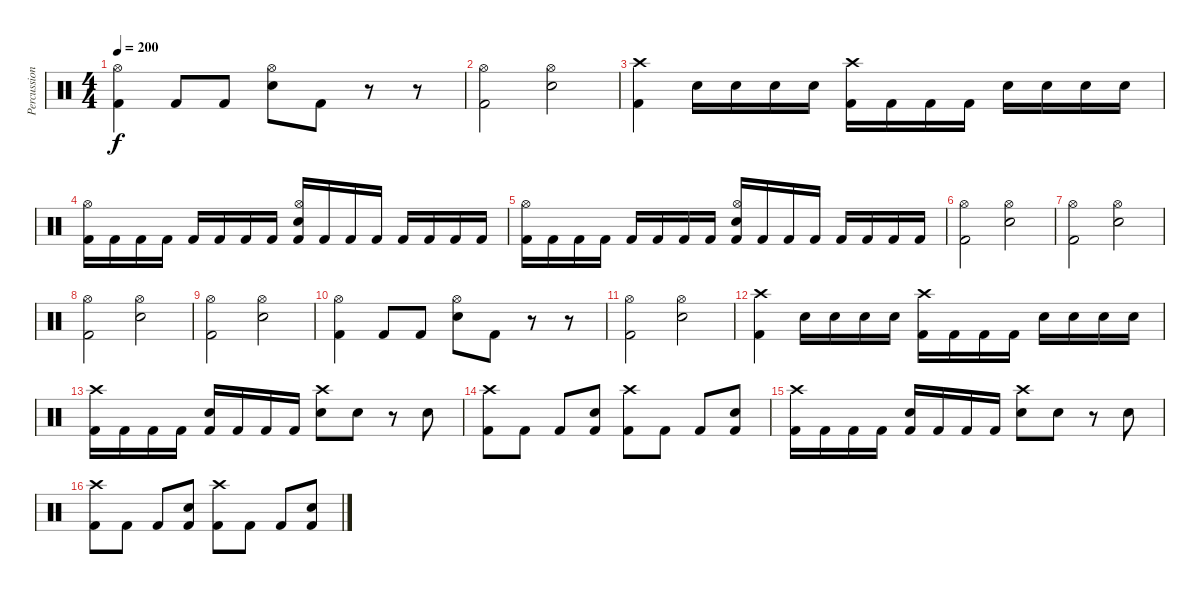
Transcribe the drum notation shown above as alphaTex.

\track ("Percussion" "Percussion") {instrument percussion}
\staff {score}
\articulation defaults
\ts (4 4)
\tempo 200
\clef neutral
\ks c
("Kick (hit) 2" "Hi-Hat (open)").4{dy f} "Kick (hit) 2".8 "Kick (hit) 2".8 ("Snare (hit) 2" "Hi-Hat (open)").8 "Kick (hit) 2".8 r.8 r.8 |
("Hi-Hat (open)" "Kick (hit) 2").2 ("Snare (hit) 2" "Hi-Hat (open)").2 |
("Kick (hit) 2" "Crash high (hit)").4 "Snare (hit) 2".16 "Snare (hit) 2".16 "Snare (hit) 2".16 "Snare (hit) 2".16 ("Kick (hit) 2" "Crash high (hit)").16 "Kick (hit) 2".16 "Kick (hit) 2".16 "Kick (hit) 2".16 "Snare (hit) 2".16 "Snare (hit) 2".16 "Snare (hit) 2".16 "Snare (hit) 2".16 |
("Kick (hit) 2" "Hi-Hat (open)").16 "Kick (hit) 2".16 "Kick (hit) 2".16 "Kick (hit) 2".16 "Kick (hit) 2".16 "Kick (hit) 2".16 "Kick (hit) 2".16 "Kick (hit) 2".16 ("Kick (hit) 2" "Hi-Hat (open)" "Snare (hit) 2").16 "Kick (hit) 2".16 "Kick (hit) 2".16 "Kick (hit) 2".16 "Kick (hit) 2".16 "Kick (hit) 2".16 "Kick (hit) 2".16 "Kick (hit) 2".16 |
("Kick (hit) 2" "Hi-Hat (open)").16 "Kick (hit) 2".16 "Kick (hit) 2".16 "Kick (hit) 2".16 "Kick (hit) 2".16 "Kick (hit) 2".16 "Kick (hit) 2".16 "Kick (hit) 2".16 ("Kick (hit) 2" "Hi-Hat (open)" "Snare (hit) 2").16 "Kick (hit) 2".16 "Kick (hit) 2".16 "Kick (hit) 2".16 "Kick (hit) 2".16 "Kick (hit) 2".16 "Kick (hit) 2".16 "Kick (hit) 2".16 |
("Hi-Hat (open)" "Kick (hit) 2").2 ("Snare (hit) 2" "Hi-Hat (open)").2 |
("Hi-Hat (open)" "Kick (hit) 2").2 ("Snare (hit) 2" "Hi-Hat (open)").2 |
("Hi-Hat (open)" "Kick (hit) 2").2 ("Snare (hit) 2" "Hi-Hat (open)").2 |
("Hi-Hat (open)" "Kick (hit) 2").2 ("Snare (hit) 2" "Hi-Hat (open)").2 |
("Kick (hit) 2" "Hi-Hat (open)").4 "Kick (hit) 2".8 "Kick (hit) 2".8 ("Snare (hit) 2" "Hi-Hat (open)").8 "Kick (hit) 2".8 r.8 r.8 |
("Hi-Hat (open)" "Kick (hit) 2").2 ("Snare (hit) 2" "Hi-Hat (open)").2 |
("Kick (hit) 2" "Crash high (hit)").4 "Snare (hit) 2".16 "Snare (hit) 2".16 "Snare (hit) 2".16 "Snare (hit) 2".16 ("Kick (hit) 2" "Crash high (hit)").16 "Kick (hit) 2".16 "Kick (hit) 2".16 "Kick (hit) 2".16 "Snare (hit) 2".16 "Snare (hit) 2".16 "Snare (hit) 2".16 "Snare (hit) 2".16 |
("Crash high (hit)" "Kick (hit) 2").16 "Kick (hit) 2".16 "Kick (hit) 2".16 "Kick (hit) 2".16 ("Snare (hit) 2" "Kick (hit) 2").16 "Kick (hit) 2".16 "Kick (hit) 2".16 "Kick (hit) 2".16 ("Snare (hit) 2" "Crash high (hit)").8 "Snare (hit) 2".8 r.8 "Snare (hit) 2".8 |
("Kick (hit) 2" "Crash high (hit)").8 "Kick (hit) 2".8 "Kick (hit) 2".8 ("Kick (hit) 2" "Snare (hit) 2").8 ("Kick (hit) 2" "Crash high (hit)").8 "Kick (hit) 2".8 "Kick (hit) 2".8 ("Kick (hit) 2" "Snare (hit) 2").8 |
("Crash high (hit)" "Kick (hit) 2").16 "Kick (hit) 2".16 "Kick (hit) 2".16 "Kick (hit) 2".16 ("Snare (hit) 2" "Kick (hit) 2").16 "Kick (hit) 2".16 "Kick (hit) 2".16 "Kick (hit) 2".16 ("Snare (hit) 2" "Crash high (hit)").8 "Snare (hit) 2".8 r.8 "Snare (hit) 2".8 |
("Kick (hit) 2" "Crash high (hit)").8 "Kick (hit) 2".8 "Kick (hit) 2".8 ("Kick (hit) 2" "Snare (hit) 2").8 ("Kick (hit) 2" "Crash high (hit)").8 "Kick (hit) 2".8 "Kick (hit) 2".8 ("Kick (hit) 2" "Snare (hit) 2").8
